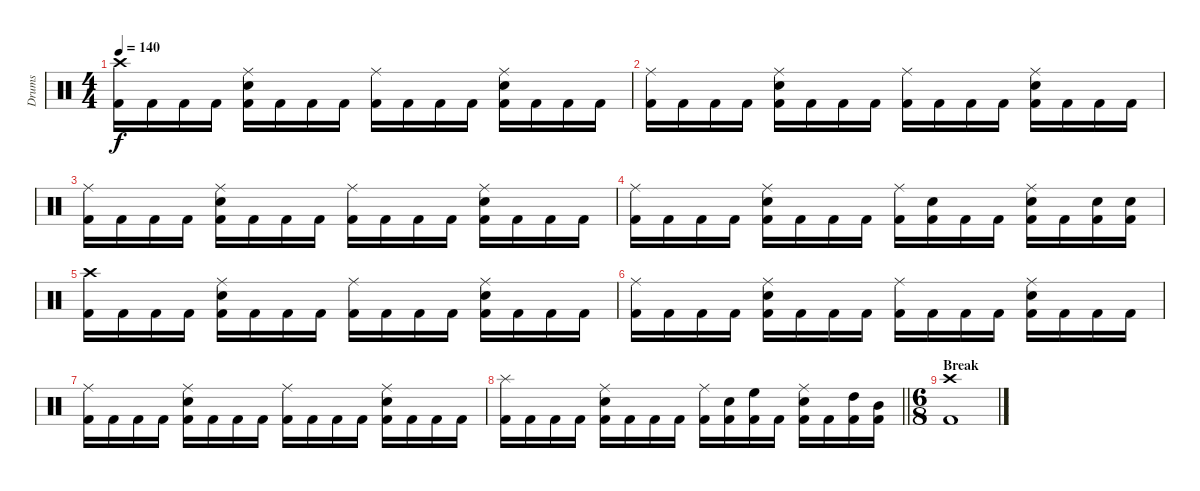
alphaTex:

\track ("Drums" "Drums") {instrument percussion}
\staff {score}
\articulation defaults
\ts (4 4)
\tempo 140
\clef neutral
\ks c
("Kick (hit) 2" "Crash high (hit)").16{dy f} "Kick (hit) 2".16 "Kick (hit) 2".16 "Kick (hit) 2".16 ("Kick (hit) 2" "Electric Snare (hit)" "Ride (middle)").16 "Kick (hit) 2".16 "Kick (hit) 2".16 "Kick (hit) 2".16 ("Kick (hit) 2" "Ride (middle)").16 "Kick (hit) 2".16 "Kick (hit) 2".16 "Kick (hit) 2".16 ("Kick (hit) 2" "Electric Snare (hit)" "Ride (middle)").16 "Kick (hit) 2".16 "Kick (hit) 2".16 "Kick (hit) 2".16 |
("Kick (hit) 2" "Ride (middle)").16 "Kick (hit) 2".16 "Kick (hit) 2".16 "Kick (hit) 2".16 ("Kick (hit) 2" "Electric Snare (hit)" "Ride (middle)").16 "Kick (hit) 2".16 "Kick (hit) 2".16 "Kick (hit) 2".16 ("Kick (hit) 2" "Ride (middle)").16 "Kick (hit) 2".16 "Kick (hit) 2".16 "Kick (hit) 2".16 ("Kick (hit) 2" "Electric Snare (hit)" "Ride (middle)").16 "Kick (hit) 2".16 "Kick (hit) 2".16 "Kick (hit) 2".16 |
("Kick (hit) 2" "Ride (middle)").16 "Kick (hit) 2".16 "Kick (hit) 2".16 "Kick (hit) 2".16 ("Kick (hit) 2" "Electric Snare (hit)" "Ride (middle)").16 "Kick (hit) 2".16 "Kick (hit) 2".16 "Kick (hit) 2".16 ("Kick (hit) 2" "Ride (middle)").16 "Kick (hit) 2".16 "Kick (hit) 2".16 "Kick (hit) 2".16 ("Kick (hit) 2" "Electric Snare (hit)" "Ride (middle)").16 "Kick (hit) 2".16 "Kick (hit) 2".16 "Kick (hit) 2".16 |
("Kick (hit) 2" "Ride (middle)").16 "Kick (hit) 2".16 "Kick (hit) 2".16 "Kick (hit) 2".16 ("Kick (hit) 2" "Electric Snare (hit)" "Ride (middle)").16 "Kick (hit) 2".16 "Kick (hit) 2".16 "Kick (hit) 2".16 ("Kick (hit) 2" "Ride (middle)").16 ("Kick (hit) 2" "Electric Snare (hit)").16 "Kick (hit) 2".16 "Kick (hit) 2".16 ("Kick (hit) 2" "Electric Snare (hit)" "Ride (middle)").16 "Kick (hit) 2".16 ("Kick (hit) 2" "Electric Snare (hit)").16 ("Kick (hit) 2" "Electric Snare (hit)").16 |
("Kick (hit) 2" "Crash high (hit)").16 "Kick (hit) 2".16 "Kick (hit) 2".16 "Kick (hit) 2".16 ("Kick (hit) 2" "Electric Snare (hit)" "Ride (middle)").16 "Kick (hit) 2".16 "Kick (hit) 2".16 "Kick (hit) 2".16 ("Kick (hit) 2" "Ride (middle)").16 "Kick (hit) 2".16 "Kick (hit) 2".16 "Kick (hit) 2".16 ("Kick (hit) 2" "Electric Snare (hit)" "Ride (middle)").16 "Kick (hit) 2".16 "Kick (hit) 2".16 "Kick (hit) 2".16 |
("Kick (hit) 2" "Ride (middle)").16 "Kick (hit) 2".16 "Kick (hit) 2".16 "Kick (hit) 2".16 ("Kick (hit) 2" "Electric Snare (hit)" "Ride (middle)").16 "Kick (hit) 2".16 "Kick (hit) 2".16 "Kick (hit) 2".16 ("Kick (hit) 2" "Ride (middle)").16 "Kick (hit) 2".16 "Kick (hit) 2".16 "Kick (hit) 2".16 ("Kick (hit) 2" "Electric Snare (hit)" "Ride (middle)").16 "Kick (hit) 2".16 "Kick (hit) 2".16 "Kick (hit) 2".16 |
("Kick (hit) 2" "Ride (middle)").16 "Kick (hit) 2".16 "Kick (hit) 2".16 "Kick (hit) 2".16 ("Kick (hit) 2" "Electric Snare (hit)" "Ride (middle)").16 "Kick (hit) 2".16 "Kick (hit) 2".16 "Kick (hit) 2".16 ("Kick (hit) 2" "Ride (middle)").16 "Kick (hit) 2".16 "Kick (hit) 2".16 "Kick (hit) 2".16 ("Kick (hit) 2" "Electric Snare (hit)" "Ride (middle)").16 "Kick (hit) 2".16 "Kick (hit) 2".16 "Kick (hit) 2".16 |
\barLineRight lightlight
("Kick (hit) 2" "Splash (hit)").16 "Kick (hit) 2".16 "Kick (hit) 2".16 "Kick (hit) 2".16 ("Kick (hit) 2" "Electric Snare (hit)" "Ride (middle)").16 "Kick (hit) 2".16 "Kick (hit) 2".16 "Kick (hit) 2".16 ("Kick (hit) 2" "Ride (middle)").16 ("Kick (hit) 2" "Electric Snare (hit)").16 ("Kick (hit) 2" "High Floor Tom (hit)").16 "Kick (hit) 2".16 ("Kick (hit) 2" "Electric Snare (hit)" "Ride (middle)").16 "Kick (hit) 2".16 ("Kick (hit) 2" "High Tom (hit)").16 ("Kick (hit) 2" "Mid Tom (hit)").16 |
\ts (6 8)
\section ("" "Break")
("Kick (hit) 2" "Crash high (hit)").1
